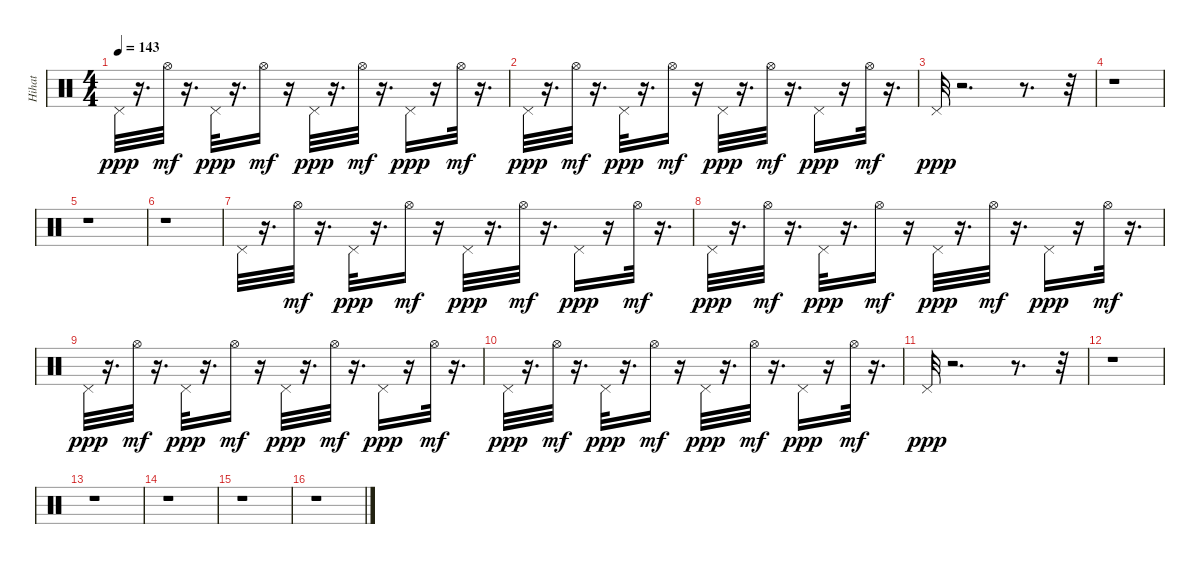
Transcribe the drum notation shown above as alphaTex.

\track ("Hihat    " "Hihat    ") {instrument percussion}
\staff {score}
\articulation defaults
\ts (4 4)
\tempo 143
\clef neutral
\ks c "Pedal Hi-Hat (hit)".32{dy ppp}
r.16{d} "Hi-Hat (open)".32{dy mf} r.16{d} "Pedal Hi-Hat (hit)".32{dy ppp} r.16{d} "Hi-Hat (open)".16{dy mf} r.16 "Pedal Hi-Hat (hit)".32{dy ppp} r.16{d} "Hi-Hat (open)".32{dy mf} r.16{d} "Pedal Hi-Hat (hit)".16{dy ppp} r.16 "Hi-Hat (open)".32{dy mf} r.16{d} |
"Pedal Hi-Hat (hit)".32{dy ppp} r.16{d} "Hi-Hat (open)".32{dy mf} r.16{d} "Pedal Hi-Hat (hit)".32{dy ppp} r.16{d} "Hi-Hat (open)".16{dy mf} r.16 "Pedal Hi-Hat (hit)".32{dy ppp} r.16{d} "Hi-Hat (open)".32{dy mf} r.16{d} "Pedal Hi-Hat (hit)".16{dy ppp} r.16 "Hi-Hat (open)".32{dy mf} r.16{d} |
"Pedal Hi-Hat (hit)".32{dy ppp} r.2{d} r.8{d} r.32 |
r.1 |
r.1 |
r.1 |
"Pedal Hi-Hat (hit)".32 r.16{d} "Hi-Hat (open)".32{dy mf} r.16{d} "Pedal Hi-Hat (hit)".32{dy ppp} r.16{d} "Hi-Hat (open)".16{dy mf} r.16 "Pedal Hi-Hat (hit)".32{dy ppp} r.16{d} "Hi-Hat (open)".32{dy mf} r.16{d} "Pedal Hi-Hat (hit)".16{dy ppp} r.16 "Hi-Hat (open)".32{dy mf} r.16{d} |
"Pedal Hi-Hat (hit)".32{dy ppp} r.16{d} "Hi-Hat (open)".32{dy mf} r.16{d} "Pedal Hi-Hat (hit)".32{dy ppp} r.16{d} "Hi-Hat (open)".16{dy mf} r.16 "Pedal Hi-Hat (hit)".32{dy ppp} r.16{d} "Hi-Hat (open)".32{dy mf} r.16{d} "Pedal Hi-Hat (hit)".16{dy ppp} r.16 "Hi-Hat (open)".32{dy mf} r.16{d} |
"Pedal Hi-Hat (hit)".32{dy ppp} r.16{d} "Hi-Hat (open)".32{dy mf} r.16{d} "Pedal Hi-Hat (hit)".32{dy ppp} r.16{d} "Hi-Hat (open)".16{dy mf} r.16 "Pedal Hi-Hat (hit)".32{dy ppp} r.16{d} "Hi-Hat (open)".32{dy mf} r.16{d} "Pedal Hi-Hat (hit)".16{dy ppp} r.16 "Hi-Hat (open)".32{dy mf} r.16{d} |
"Pedal Hi-Hat (hit)".32{dy ppp} r.16{d} "Hi-Hat (open)".32{dy mf} r.16{d} "Pedal Hi-Hat (hit)".32{dy ppp} r.16{d} "Hi-Hat (open)".16{dy mf} r.16 "Pedal Hi-Hat (hit)".32{dy ppp} r.16{d} "Hi-Hat (open)".32{dy mf} r.16{d} "Pedal Hi-Hat (hit)".16{dy ppp} r.16 "Hi-Hat (open)".32{dy mf} r.16{d} |
"Pedal Hi-Hat (hit)".32{dy ppp} r.2{d} r.8{d} r.32 |
r.1 |
r.1 |
r.1 |
r.1 |
r.1
